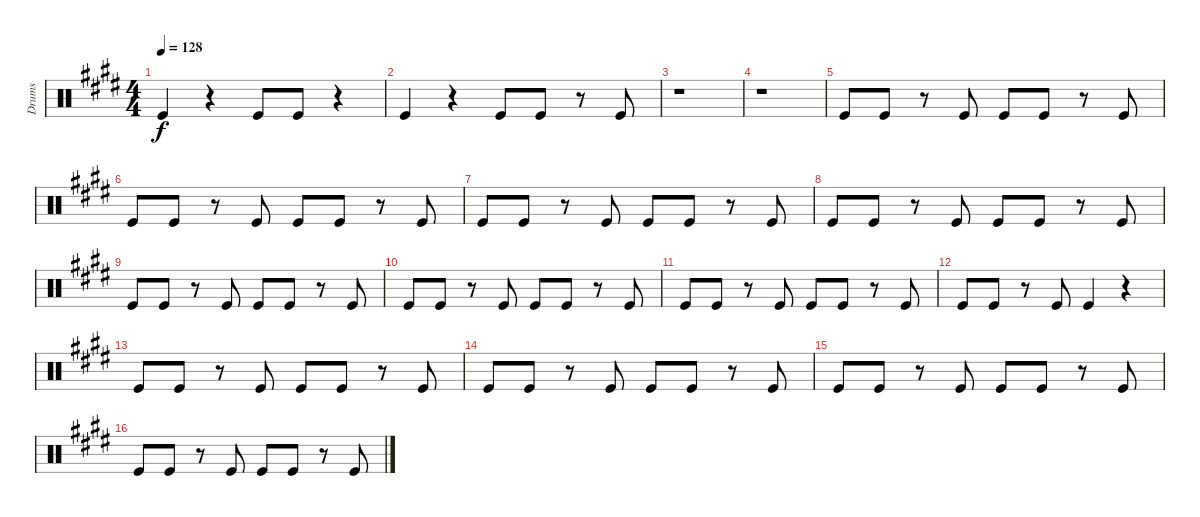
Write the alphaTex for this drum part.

\track ("Drums" "Drums") {instrument percussion}
\staff {score}
\articulation defaults
\ts (4 4)
\tempo 128
\clef neutral
\ks e "Kick (hit)".4{dy f}
r.4 "Kick (hit)".8 "Kick (hit)".8 r.4 |
"Kick (hit)".4 r.4 "Kick (hit)".8 "Kick (hit)".8 r.8 "Kick (hit)".8 |
r.1 |
r.1 |
"Kick (hit)".8 "Kick (hit)".8 r.8 "Kick (hit)".8 "Kick (hit)".8 "Kick (hit)".8 r.8 "Kick (hit)".8 |
"Kick (hit)".8 "Kick (hit)".8 r.8 "Kick (hit)".8 "Kick (hit)".8 "Kick (hit)".8 r.8 "Kick (hit)".8 |
"Kick (hit)".8 "Kick (hit)".8 r.8 "Kick (hit)".8 "Kick (hit)".8 "Kick (hit)".8 r.8 "Kick (hit)".8 |
"Kick (hit)".8 "Kick (hit)".8 r.8 "Kick (hit)".8 "Kick (hit)".8 "Kick (hit)".8 r.8 "Kick (hit)".8 |
"Kick (hit)".8 "Kick (hit)".8 r.8 "Kick (hit)".8 "Kick (hit)".8 "Kick (hit)".8 r.8 "Kick (hit)".8 |
"Kick (hit)".8 "Kick (hit)".8 r.8 "Kick (hit)".8 "Kick (hit)".8 "Kick (hit)".8 r.8 "Kick (hit)".8 |
"Kick (hit)".8 "Kick (hit)".8 r.8 "Kick (hit)".8 "Kick (hit)".8 "Kick (hit)".8 r.8 "Kick (hit)".8 |
"Kick (hit)".8 "Kick (hit)".8 r.8 "Kick (hit)".8 "Kick (hit)".4 r.4 |
"Kick (hit)".8 "Kick (hit)".8 r.8 "Kick (hit)".8 "Kick (hit)".8 "Kick (hit)".8 r.8 "Kick (hit)".8 |
"Kick (hit)".8 "Kick (hit)".8 r.8 "Kick (hit)".8 "Kick (hit)".8 "Kick (hit)".8 r.8 "Kick (hit)".8 |
"Kick (hit)".8 "Kick (hit)".8 r.8 "Kick (hit)".8 "Kick (hit)".8 "Kick (hit)".8 r.8 "Kick (hit)".8 |
"Kick (hit)".8 "Kick (hit)".8 r.8 "Kick (hit)".8 "Kick (hit)".8 "Kick (hit)".8 r.8 "Kick (hit)".8
